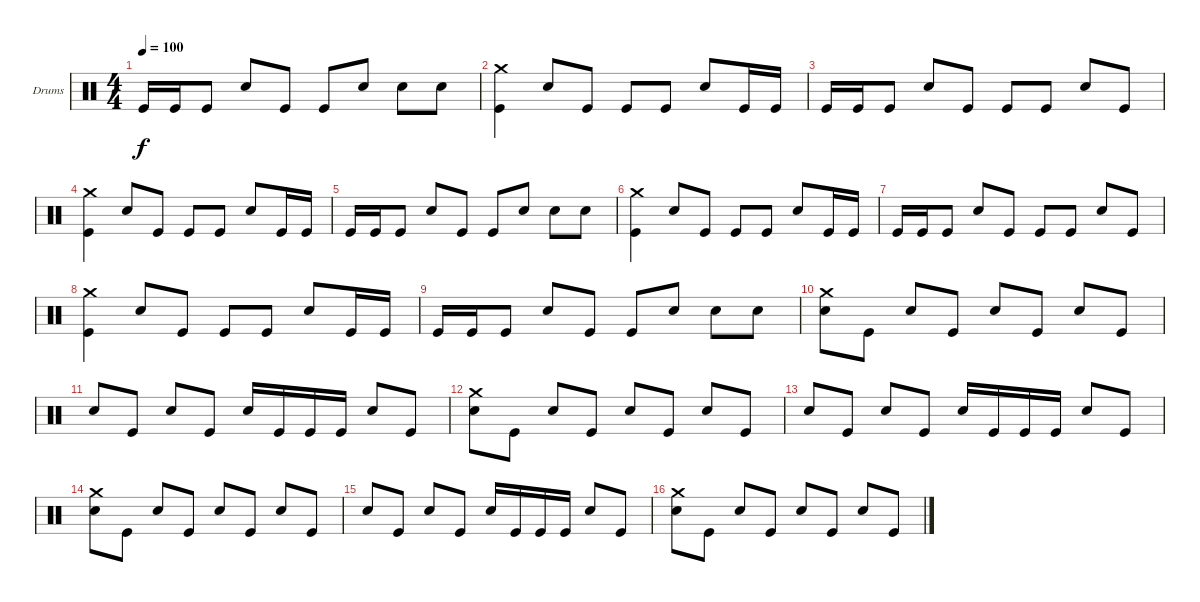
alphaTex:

\bracketExtendMode groupsimilarinstruments
\firstSystemTrackNameOrientation horizontal
\otherSystemsTrackNameOrientation horizontal
\track ("Drumkit" "Drums") {instrument percussion}
\staff {score}
\articulation defaults
\ts (4 4)
\tempo 100
\clef neutral
\ks c "Kick (hit)".16{dy f} "Kick (hit)".16 "Kick (hit)".8 "Snare (hit) 2".8 "Kick (hit)".8 "Kick (hit)".8 "Snare (hit) 2".8 "Snare (hit) 2".8 "Snare (hit) 2".8
|
("Crash medium (hit)" "Kick (hit)").4 "Snare (hit) 2".8 "Kick (hit)".8 "Kick (hit)".8 "Kick (hit)".8 "Snare (hit) 2".8 "Kick (hit)".16 "Kick (hit)".16 |
"Kick (hit)".16 "Kick (hit)".16 "Kick (hit)".8 "Snare (hit) 2".8 "Kick (hit)".8 "Kick (hit)".8 "Kick (hit)".8 "Snare (hit) 2".8 "Kick (hit)".8 |
("Crash medium (hit)" "Kick (hit)").4 "Snare (hit) 2".8 "Kick (hit)".8 "Kick (hit)".8 "Kick (hit)".8 "Snare (hit) 2".8 "Kick (hit)".16 "Kick (hit)".16 |
"Kick (hit)".16 "Kick (hit)".16 "Kick (hit)".8 "Snare (hit) 2".8 "Kick (hit)".8 "Kick (hit)".8 "Snare (hit) 2".8 "Snare (hit) 2".8 "Snare (hit) 2".8 |
("Crash medium (hit)" "Kick (hit)").4 "Snare (hit) 2".8 "Kick (hit)".8 "Kick (hit)".8 "Kick (hit)".8 "Snare (hit) 2".8 "Kick (hit)".16 "Kick (hit)".16 |
"Kick (hit)".16 "Kick (hit)".16 "Kick (hit)".8 "Snare (hit) 2".8 "Kick (hit)".8 "Kick (hit)".8 "Kick (hit)".8 "Snare (hit) 2".8 "Kick (hit)".8 |
("Crash medium (hit)" "Kick (hit)").4 "Snare (hit) 2".8 "Kick (hit)".8 "Kick (hit)".8 "Kick (hit)".8 "Snare (hit) 2".8 "Kick (hit)".16 "Kick (hit)".16 |
"Kick (hit)".16 "Kick (hit)".16 "Kick (hit)".8 "Snare (hit) 2".8 "Kick (hit)".8 "Kick (hit)".8 "Snare (hit) 2".8 "Snare (hit) 2".8 "Snare (hit) 2".8 |
("Crash medium (hit)" "Snare (hit) 2").8 "Kick (hit)".8 "Snare (hit) 2".8 "Kick (hit)".8 "Snare (hit) 2".8 "Kick (hit)".8 "Snare (hit) 2".8 "Kick (hit)".8 |
"Snare (hit) 2".8 "Kick (hit)".8 "Snare (hit) 2".8 "Kick (hit)".8 "Snare (hit) 2".16 "Kick (hit)".16 "Kick (hit)".16 "Kick (hit)".16 "Snare (hit) 2".8 "Kick (hit)".8 |
("Crash medium (hit)" "Snare (hit) 2").8 "Kick (hit)".8 "Snare (hit) 2".8 "Kick (hit)".8 "Snare (hit) 2".8 "Kick (hit)".8 "Snare (hit) 2".8 "Kick (hit)".8 |
"Snare (hit) 2".8 "Kick (hit)".8 "Snare (hit) 2".8 "Kick (hit)".8 "Snare (hit) 2".16 "Kick (hit)".16 "Kick (hit)".16 "Kick (hit)".16 "Snare (hit) 2".8 "Kick (hit)".8 |
("Crash medium (hit)" "Snare (hit) 2").8 "Kick (hit)".8 "Snare (hit) 2".8 "Kick (hit)".8 "Snare (hit) 2".8 "Kick (hit)".8 "Snare (hit) 2".8 "Kick (hit)".8 |
"Snare (hit) 2".8 "Kick (hit)".8 "Snare (hit) 2".8 "Kick (hit)".8 "Snare (hit) 2".16 "Kick (hit)".16 "Kick (hit)".16 "Kick (hit)".16 "Snare (hit) 2".8 "Kick (hit)".8 |
("Crash medium (hit)" "Snare (hit) 2").8 "Kick (hit)".8 "Snare (hit) 2".8 "Kick (hit)".8 "Snare (hit) 2".8 "Kick (hit)".8 "Snare (hit) 2".8 "Kick (hit)".8
